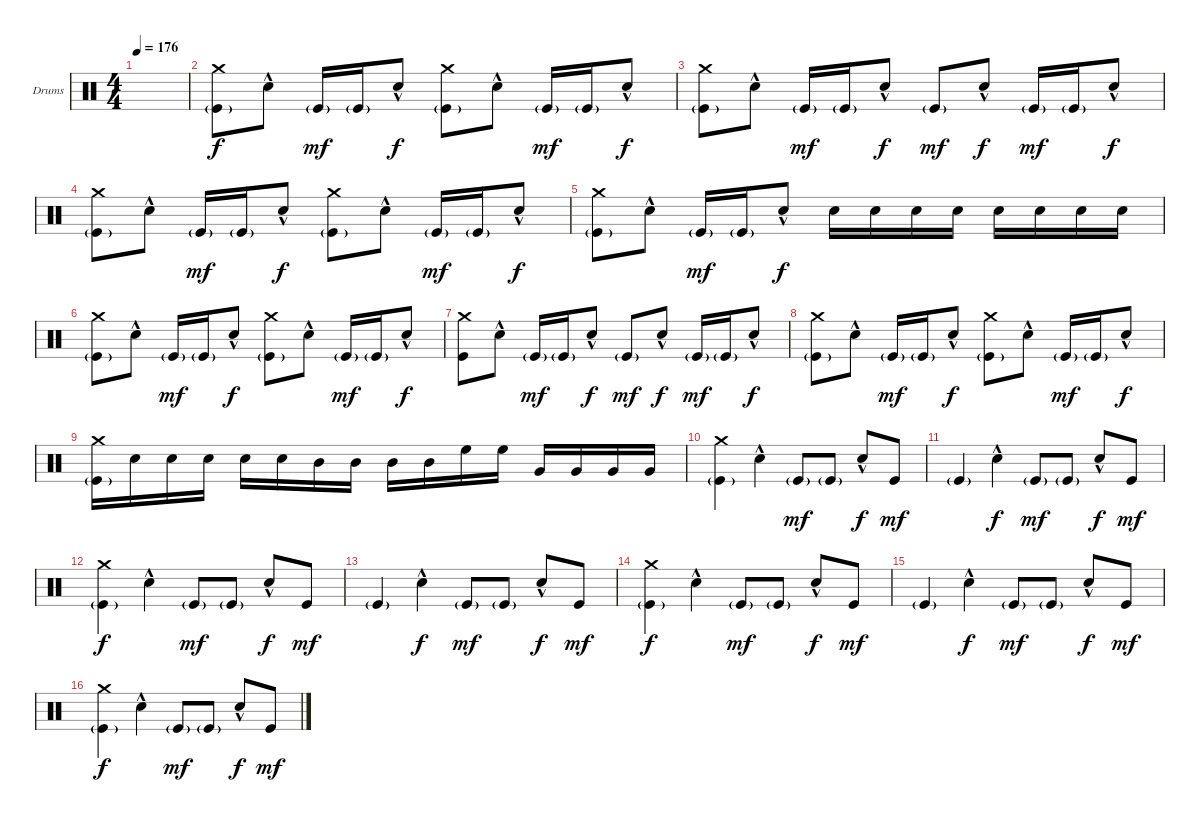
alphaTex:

\defaultSystemsLayout 4
\bracketExtendMode groupsimilarinstruments
\firstSystemTrackNameOrientation horizontal
\otherSystemsTrackNameOrientation horizontal
\track ("Drums" "Drums") {instrument percussion}
\staff {score}
\articulation defaults
\ts (4 4)
\tempo 176
\clef neutral
\ks c
|
("Crash medium (hit)" "Kick (hit)"{g}).8 "Snare (hit) 2"{hac}.8 "Kick (hit)"{g}.16{dy mf} "Kick (hit)"{g}.16 "Snare (hit) 2"{hac}.8{dy f} ("Crash medium (hit)" "Kick (hit)"{g}).8 "Snare (hit) 2"{hac}.8 "Kick (hit)"{g}.16{dy mf} "Kick (hit)"{g}.16 "Snare (hit) 2"{hac}.8{dy f} |
("Crash medium (hit)" "Kick (hit)"{g}).8 "Snare (hit) 2"{hac}.8 "Kick (hit)"{g}.16{dy mf} "Kick (hit)"{g}.16 "Snare (hit) 2"{hac}.8{dy f} "Kick (hit)"{g}.8{dy mf} "Snare (hit) 2"{hac}.8{dy f} "Kick (hit)"{g}.16{dy mf} "Kick (hit)"{g}.16 "Snare (hit) 2"{hac}.8{dy f} |
("Crash medium (hit)" "Kick (hit)"{g}).8 "Snare (hit) 2"{hac}.8 "Kick (hit)"{g}.16{dy mf} "Kick (hit)"{g}.16 "Snare (hit) 2"{hac}.8{dy f} ("Crash medium (hit)" "Kick (hit)"{g}).8 "Snare (hit) 2"{hac}.8 "Kick (hit)"{g}.16{dy mf} "Kick (hit)"{g}.16 "Snare (hit) 2"{hac}.8{dy f} |
("Crash medium (hit)" "Kick (hit)"{g}).8 "Snare (hit) 2"{hac}.8 "Kick (hit)"{g}.16{dy mf} "Kick (hit)"{g}.16 "Snare (hit) 2"{hac}.8{dy f} "Snare (hit) 2".16 "Snare (hit) 2".16 "Snare (hit) 2".16 "Snare (hit) 2".16 "Snare (hit) 2".16 "Snare (hit) 2".16 "Snare (hit) 2".16 "Snare (hit) 2".16 |
("Crash medium (hit)" "Kick (hit)"{g}).8 "Snare (hit) 2"{hac}.8 "Kick (hit)"{g}.16{dy mf} "Kick (hit)"{g}.16 "Snare (hit) 2"{hac}.8{dy f} ("Crash medium (hit)" "Kick (hit)"{g}).8 "Snare (hit) 2"{hac}.8 "Kick (hit)"{g}.16{dy mf} "Kick (hit)"{g}.16 "Snare (hit) 2"{hac}.8{dy f} |
("Crash medium (hit)" "Kick (hit)").8 "Snare (hit) 2"{hac}.8 "Kick (hit)"{g}.16{dy mf} "Kick (hit)"{g}.16 "Snare (hit) 2"{hac}.8{dy f} "Kick (hit)"{g}.8{dy mf} "Snare (hit) 2"{hac}.8{dy f} "Kick (hit)"{g}.16{dy mf} "Kick (hit)"{g}.16 "Snare (hit) 2"{hac}.8{dy f} |
("Crash medium (hit)" "Kick (hit)"{g}).8 "Snare (hit) 2"{hac}.8 "Kick (hit)"{g}.16{dy mf} "Kick (hit)"{g}.16 "Snare (hit) 2"{hac}.8{dy f} ("Crash medium (hit)" "Kick (hit)"{g}).8 "Snare (hit) 2"{hac}.8 "Kick (hit)"{g}.16{dy mf} "Kick (hit)"{g}.16 "Snare (hit) 2"{hac}.8{dy f} |
("Crash medium (hit)" "Kick (hit)"{g}).16 "Snare (hit) 2".16 "Snare (hit) 2".16 "Snare (hit) 2".16 "Snare (hit) 2".16 "Snare (hit) 2".16 "Mid Tom (hit)".16 "Mid Tom (hit)".16 "Mid Tom (hit)".16 "Mid Tom (hit)".16 "High Floor Tom (hit)".16 "High Floor Tom (hit)".16 "Very Low Tom (hit)".16 "Very Low Tom (hit)".16 "Very Low Tom (hit)".16 "Very Low Tom (hit)".16 |
("Crash medium (hit)" "Kick (hit)"{g}).4 "Snare (hit) 2"{hac}.4 "Kick (hit)"{g}.8{dy mf} "Kick (hit)"{g}.8 "Snare (hit) 2"{hac}.8{dy f} "Kick (hit)".8{dy mf} |
"Kick (hit)"{g}.4 "Snare (hit) 2"{hac}.4{dy f} "Kick (hit)"{g}.8{dy mf} "Kick (hit)"{g}.8 "Snare (hit) 2"{hac}.8{dy f} "Kick (hit)".8{dy mf} |
("Crash medium (hit)" "Kick (hit)"{g}).4{dy f} "Snare (hit) 2"{hac}.4 "Kick (hit)"{g}.8{dy mf} "Kick (hit)"{g}.8 "Snare (hit) 2"{hac}.8{dy f} "Kick (hit)".8{dy mf} |
"Kick (hit)"{g}.4 "Snare (hit) 2"{hac}.4{dy f} "Kick (hit)"{g}.8{dy mf} "Kick (hit)"{g}.8 "Snare (hit) 2"{hac}.8{dy f} "Kick (hit)".8{dy mf} |
("Crash medium (hit)" "Kick (hit)"{g}).4{dy f} "Snare (hit) 2"{hac}.4 "Kick (hit)"{g}.8{dy mf} "Kick (hit)"{g}.8 "Snare (hit) 2"{hac}.8{dy f} "Kick (hit)".8{dy mf} |
"Kick (hit)"{g}.4 "Snare (hit) 2"{hac}.4{dy f} "Kick (hit)"{g}.8{dy mf} "Kick (hit)"{g}.8 "Snare (hit) 2"{hac}.8{dy f} "Kick (hit)".8{dy mf} |
("Crash medium (hit)" "Kick (hit)"{g}).4{dy f} "Snare (hit) 2"{hac}.4 "Kick (hit)"{g}.8{dy mf} "Kick (hit)"{g}.8 "Snare (hit) 2"{hac}.8{dy f} "Kick (hit)".8{dy mf}
